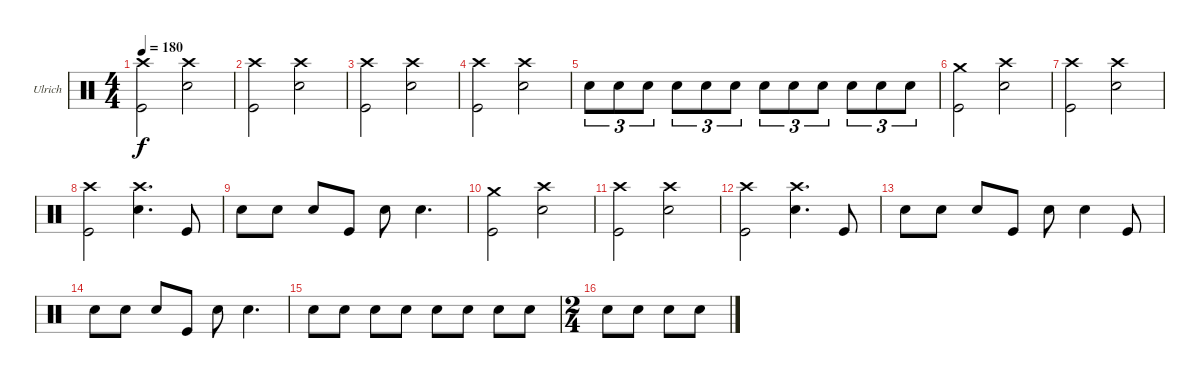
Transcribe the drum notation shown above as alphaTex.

\bracketExtendMode groupsimilarinstruments
\firstSystemTrackNameOrientation horizontal
\otherSystemsTrackNameOrientation horizontal
\track ("Drumkit" "Ulrich") {instrument percussion}
\staff {score}
\articulation defaults
\ts (4 4)
\tempo 180
\clef neutral
\ks c
("Crash high (hit)" "Kick (hit)").2{dy f} ("Crash high (hit)" "Snare (hit) 2").2 |
("Crash high (hit)" "Kick (hit)").2 ("Crash high (hit)" "Snare (hit) 2").2 |
("Crash high (hit)" "Kick (hit)").2 ("Crash high (hit)" "Snare (hit) 2").2 |
("Crash high (hit)" "Kick (hit)").2 ("Crash high (hit)" "Snare (hit) 2").2 |
"Snare (hit) 2".8{tu (3 2)} "Snare (hit) 2".8{tu (3 2)} "Snare (hit) 2".8{tu (3 2)} "Snare (hit) 2".8{tu (3 2)} "Snare (hit) 2".8{tu (3 2)} "Snare (hit) 2".8{tu (3 2)} "Snare (hit) 2".8{tu (3 2)} "Snare (hit) 2".8{tu (3 2)} "Snare (hit) 2".8{tu (3 2)} "Snare (hit) 2".8{tu (3 2)} "Snare (hit) 2".8{tu (3 2)} "Snare (hit) 2".8{tu (3 2)} |
("Crash medium (hit)" "Kick (hit)").2 ("Crash high (hit)" "Snare (hit) 2").2 |
("Crash high (hit)" "Kick (hit)").2 ("Crash high (hit)" "Snare (hit) 2").2 |
("Crash high (hit)" "Kick (hit)").2 ("Crash high (hit)" "Snare (hit) 2").4{d} "Kick (hit)".8 |
"Snare (hit) 2".8 "Snare (hit) 2".8 "Snare (hit) 2".8 "Kick (hit)".8 "Snare (hit) 2".8 "Snare (hit) 2".4{d} |
("Crash medium (hit)" "Kick (hit)").2 ("Crash high (hit)" "Snare (hit) 2").2 |
("Crash high (hit)" "Kick (hit)").2 ("Crash high (hit)" "Snare (hit) 2").2 |
("Crash high (hit)" "Kick (hit)").2 ("Crash high (hit)" "Snare (hit) 2").4{d} "Kick (hit)".8 |
"Snare (hit) 2".8 "Snare (hit) 2".8 "Snare (hit) 2".8 "Kick (hit)".8 "Snare (hit) 2".8 "Snare (hit) 2".4 "Kick (hit)".8 |
"Snare (hit) 2".8 "Snare (hit) 2".8 "Snare (hit) 2".8 "Kick (hit)".8 "Snare (hit) 2".8 "Snare (hit) 2".4{d} |
"Snare (hit) 2".8 "Snare (hit) 2".8 "Snare (hit) 2".8 "Snare (hit) 2".8 "Snare (hit) 2".8 "Snare (hit) 2".8 "Snare (hit) 2".8 "Snare (hit) 2".8 |
\ts (2 4)
\beaming (8 2 2)
"Snare (hit) 2".8 "Snare (hit) 2".8 "Snare (hit) 2".8 "Snare (hit) 2".8
